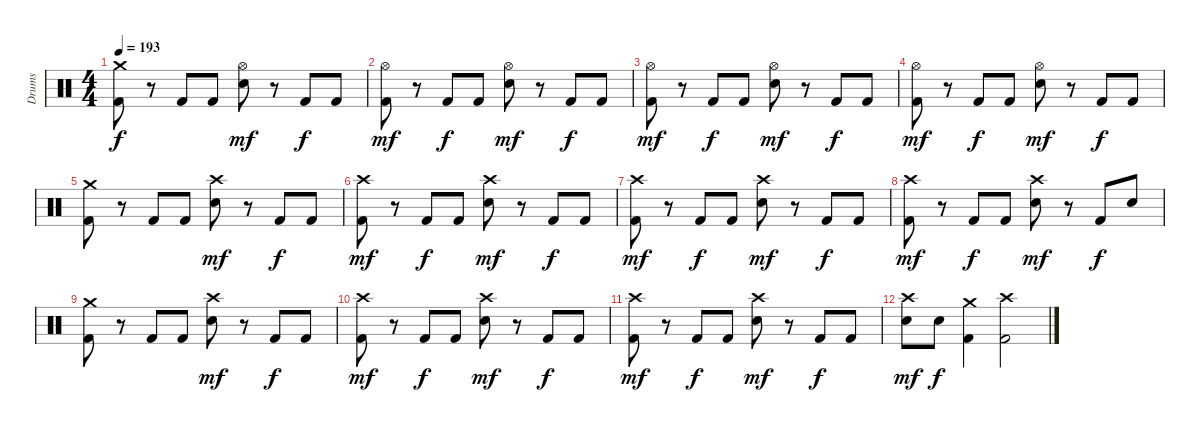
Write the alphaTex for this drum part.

\track ("Drums" "Drums") {instrument percussion}
\staff {score}
\articulation defaults
\ts (4 4)
\tempo 193
\clef neutral
\ks c
("Crash medium (hit)" "Kick (hit) 2").8{dy f} r.8 "Kick (hit) 2".8 "Kick (hit) 2".8 ("Hi-Hat (open)" "Snare (hit) 2").8{dy mf} r.8 "Kick (hit) 2".8{dy f} "Kick (hit) 2".8 |
("Hi-Hat (open)" "Kick (hit) 2").8{dy mf} r.8 "Kick (hit) 2".8{dy f} "Kick (hit) 2".8 ("Hi-Hat (open)" "Snare (hit) 2").8{dy mf} r.8 "Kick (hit) 2".8{dy f} "Kick (hit) 2".8 |
("Hi-Hat (open)" "Kick (hit) 2").8{dy mf} r.8 "Kick (hit) 2".8{dy f} "Kick (hit) 2".8 ("Hi-Hat (open)" "Snare (hit) 2").8{dy mf} r.8 "Kick (hit) 2".8{dy f} "Kick (hit) 2".8 |
("Hi-Hat (open)" "Kick (hit) 2").8{dy mf} r.8 "Kick (hit) 2".8{dy f} "Kick (hit) 2".8 ("Hi-Hat (open)" "Snare (hit) 2").8{dy mf} r.8 "Kick (hit) 2".8{dy f} "Kick (hit) 2".8 |
("Crash medium (hit)" "Kick (hit) 2").8 r.8 "Kick (hit) 2".8 "Kick (hit) 2".8 ("Crash high (hit)" "Snare (hit) 2").8{dy mf} r.8 "Kick (hit) 2".8{dy f} "Kick (hit) 2".8 |
("Crash high (hit)" "Kick (hit) 2").8{dy mf} r.8 "Kick (hit) 2".8{dy f} "Kick (hit) 2".8 ("Crash high (hit)" "Snare (hit) 2").8{dy mf} r.8 "Kick (hit) 2".8{dy f} "Kick (hit) 2".8 |
("Crash high (hit)" "Kick (hit) 2").8{dy mf} r.8 "Kick (hit) 2".8{dy f} "Kick (hit) 2".8 ("Crash high (hit)" "Snare (hit) 2").8{dy mf} r.8 "Kick (hit) 2".8{dy f} "Kick (hit) 2".8 |
("Crash high (hit)" "Kick (hit) 2").8{dy mf} r.8 "Kick (hit) 2".8{dy f} "Kick (hit) 2".8 ("Crash high (hit)" "Snare (hit) 2").8{dy mf} r.8 "Kick (hit) 2".8{dy f} "Snare (hit) 2".8 |
("Crash medium (hit)" "Kick (hit) 2").8 r.8 "Kick (hit) 2".8 "Kick (hit) 2".8 ("Crash high (hit)" "Snare (hit) 2").8{dy mf} r.8 "Kick (hit) 2".8{dy f} "Kick (hit) 2".8 |
("Crash high (hit)" "Kick (hit) 2").8{dy mf} r.8 "Kick (hit) 2".8{dy f} "Kick (hit) 2".8 ("Crash high (hit)" "Snare (hit) 2").8{dy mf} r.8 "Kick (hit) 2".8{dy f} "Kick (hit) 2".8 |
("Crash high (hit)" "Kick (hit) 2").8{dy mf} r.8 "Kick (hit) 2".8{dy f} "Kick (hit) 2".8 ("Crash high (hit)" "Snare (hit) 2").8{dy mf} r.8 "Kick (hit) 2".8{dy f} "Kick (hit) 2".8 |
("Crash high (hit)" "Snare (hit) 2").8{dy mf} "Snare (hit) 2".8{dy f} ("Crash medium (hit)" "Kick (hit) 2").4 ("Crash high (hit)" "Kick (hit) 2").2
